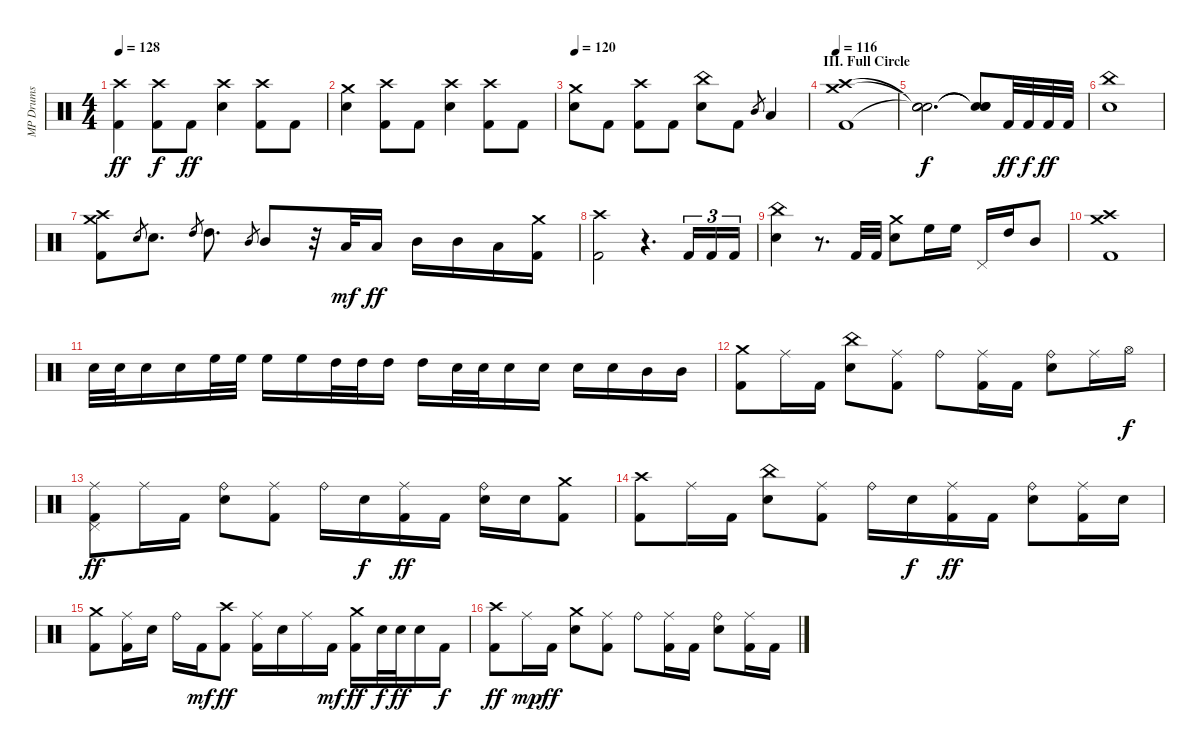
\track ("MP Drums" "MP Drums") {instrument percussion}
\staff {score}
\articulation defaults
\ts (4 4)
\tempo 128
\clef neutral
\ks c
("Crash high (hit)" "Kick (hit) 2").4{dy ff} ("Crash high (hit)" "Kick (hit) 2").8{dy f} "Kick (hit) 2".8{dy ff} ("Crash high (hit)" "Snare (hit) 2").4 ("Crash high (hit)" "Kick (hit) 2").8 "Kick (hit) 2".8 |
("Crash medium (hit)" "Snare (hit) 2").4 ("Crash high (hit)" "Kick (hit) 2").8 "Kick (hit) 2".8 ("Crash high (hit)" "Snare (hit) 2").4 ("Crash high (hit)" "Kick (hit) 2").8 "Kick (hit) 2".8 |
\tempo 120
("Crash medium (hit)" "Snare (hit) 2").8 "Kick (hit) 2".8 ("Crash high (hit)" "Kick (hit) 2").8 "Kick (hit) 2".8 ("China (hit)" "Snare (hit) 2").8 "Kick (hit) 2".8 "Mid Tom (hit)".8{gr} "Low Tom (hit)".4 |
\section ("" "III. Full Circle")
\tempo 116
("Crash medium (hit)" "Crash high (hit)" "Kick (hit) 2").1 |
("Snare (hit)"{t} "Snare (hit)"{t} "Snare (hit)"{t}).2{d dy f} ("Snare (hit)"{t} "Snare (hit)"{t} "Snare (hit)"{t}).8 "Kick (hit) 2".32{dy ff} "Kick (hit) 2".32{dy f} "Kick (hit) 2".32{dy ff} "Kick (hit) 2".32 |
("China (hit)" "Snare (hit) 2").1 |
("Crash high (hit)" "Crash medium (hit)" "Kick (hit) 2").8 "Snare (hit) 2".8{gr} "Snare (hit) 2".8{d} "High Tom (hit)".8{gr} "High Tom (hit)".8{d} "Mid Tom (hit)".8{gr} "Mid Tom (hit)".8 r.32 "Low Tom (hit)".32{dy mf} "Low Tom (hit)".16{dy ff} "Mid Tom (hit)".16 "Mid Tom (hit)".16 "Low Tom (hit)".16 ("Crash medium (hit)" "Kick (hit) 2").16 |
("Crash high (hit)" "Kick (hit) 2").2 r.4{d} "Kick (hit) 2".16{tu (3 2)} "Kick (hit) 2".16{tu (3 2)} "Kick (hit) 2".16{tu (3 2)} |
("China (hit)" "Snare (hit) 2").4 r.8{d} "Kick (hit) 2".32 "Kick (hit) 2".32 ("Crash medium (hit)" "Snare (hit) 2").8 "High Floor Tom (hit)".16 "High Floor Tom (hit)".16 "Pedal Hi-Hat (hit)".16 "High Tom (hit)".16 "Mid Tom (hit)".8 |
("Crash high (hit)" "Crash medium (hit)" "Kick (hit) 2").1 |
"Snare (hit) 2".32 "Snare (hit) 2".32 "Snare (hit) 2".16 "Snare (hit) 2".16 "High Floor Tom (hit)".32 "High Floor Tom (hit)".32 "High Floor Tom (hit)".16 "High Floor Tom (hit)".16 "High Tom (hit)".32 "High Tom (hit)".32 "High Tom (hit)".16 "High Tom (hit)".16 "Snare (hit) 2".32 "Snare (hit) 2".32 "Snare (hit) 2".16 "Snare (hit) 2".16 "Snare (hit) 2".16 "Snare (hit) 2".16 "Mid Tom (hit)".16 "Mid Tom (hit)".16 |
("Crash medium (hit)" "Kick (hit) 2").8 "Ride (middle)".16 "Kick (hit) 2".16 ("China (hit)" "Snare (hit) 2").8 ("Ride (middle)" "Kick (hit) 2").8 "Ride (bell)".8 ("Ride (middle)" "Kick (hit) 2").16 "Kick (hit) 2".16 ("Ride (bell)" "Snare (hit) 2").8 "Ride (middle)".16 "Hi-Hat (open)".16{dy f} |
("Ride (middle)" "Kick (hit) 2" "Pedal Hi-Hat (hit)").8{dy ff} "Ride (middle)".16 "Kick (hit) 2".16 ("Ride (bell)" "Snare (hit) 2").8 ("Ride (middle)" "Kick (hit) 2").8 "Ride (bell)".16 "Snare (hit) 2".16{dy f} ("Ride (middle)" "Kick (hit) 2").16{dy ff} "Kick (hit) 2".16 ("Ride (bell)" "Snare (hit) 2").16 "Snare (hit) 2".16 ("Crash medium (hit)" "Kick (hit) 2").8 |
("Crash high (hit)" "Kick (hit) 2").8 "Ride (middle)".16 "Kick (hit) 2".16 ("China (hit)" "Snare (hit) 2").8 ("Ride (middle)" "Kick (hit) 2").8 "Ride (bell)".16 "Snare (hit) 2".16{dy f} ("Ride (middle)" "Kick (hit) 2").16{dy ff} "Kick (hit) 2".16 ("Ride (bell)" "Snare (hit) 2").8 ("Ride (middle)" "Kick (hit) 2").16 "Snare (hit) 2".16 |
("Crash medium (hit)" "Kick (hit) 2").8 ("Ride (middle)" "Kick (hit) 2").16 "Snare (hit) 2".16 "Ride (bell)".16 "Kick (hit) 2".16{dy mf} ("Crash high (hit)" "Kick (hit) 2").8{dy ff} ("Ride (middle)" "Kick (hit) 2").16 "Snare (hit) 2".16 "Ride (middle)".16 "Kick (hit) 2".16{dy mf} ("Crash medium (hit)" "Kick (hit) 2").16{dy ff} "Snare (hit) 2".32{dy f} "Snare (hit) 2".32{dy ff} "Snare (hit) 2".16 "Kick (hit) 2".16{dy f} |
("Crash high (hit)" "Kick (hit) 2").8{dy ff} "Ride (middle)".16{dy mp} "Kick (hit) 2".16{dy ff} ("Crash medium (hit)" "Snare (hit) 2").8 ("Ride (middle)" "Kick (hit) 2").8 "Ride (bell)".8 ("Ride (middle)" "Kick (hit) 2").16 "Kick (hit) 2".16 ("Ride (bell)" "Snare (hit) 2").8 ("Ride (middle)" "Kick (hit) 2").16 "Kick (hit) 2".16
